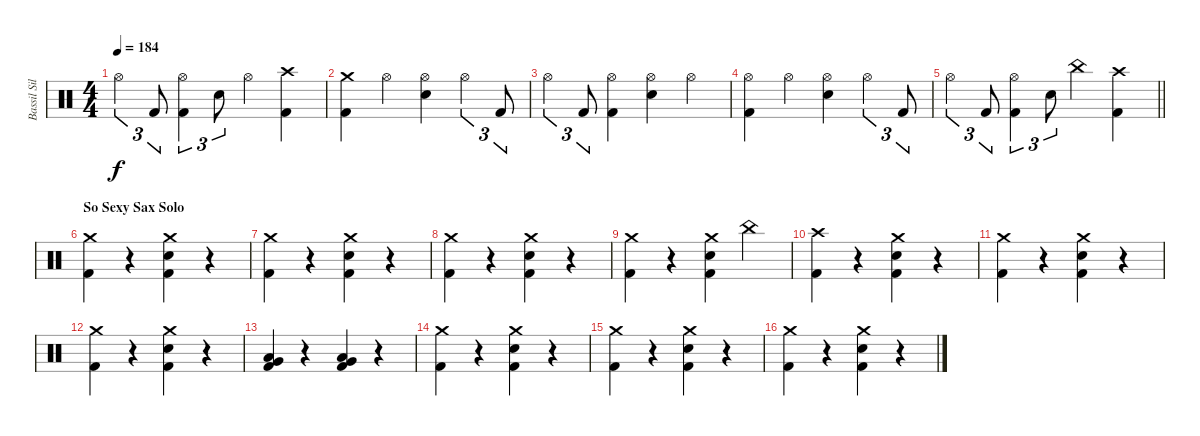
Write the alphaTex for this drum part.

\track ("Bassil Silver-Hajo" "Bassil Sil") {instrument percussion}
\staff {score}
\articulation defaults
\ts (4 4)
\tempo 184
\clef neutral
\ks c "Hi-Hat (open)".4{tu (3 2) dy f} "Kick (hit) 2".8{tu (3 2)}
("Hi-Hat (open)" "Kick (hit) 2").4{tu (3 2)} "Snare (hit) 2".8{tu (3 2)} "Hi-Hat (open)".4 ("Crash high (hit)" "Kick (hit) 2").4 |
("Crash medium (hit)" "Kick (hit) 2").4 "Hi-Hat (open)".4 ("Hi-Hat (open)" "Snare (hit) 2").4 "Hi-Hat (open)".4{tu (3 2)} "Kick (hit) 2".8{tu (3 2)} |
"Hi-Hat (open)".4{tu (3 2)} "Kick (hit) 2".8{tu (3 2)} ("Hi-Hat (open)" "Kick (hit) 2").4 ("Hi-Hat (open)" "Snare (hit) 2").4 "Hi-Hat (open)".4 |
("Hi-Hat (open)" "Kick (hit) 2").4 "Hi-Hat (open)".4 ("Hi-Hat (open)" "Snare (hit) 2").4 "Hi-Hat (open)".4{tu (3 2)} "Kick (hit) 2".8{tu (3 2)} |
\barLineRight lightlight "Hi-Hat (open)".4{tu (3 2)} "Kick (hit) 2".8{tu (3 2)}
("Hi-Hat (open)" "Kick (hit) 2").4{tu (3 2)} "Snare (hit) 2".8{tu (3 2)} "China (hit)".4 ("Crash high (hit)" "Kick (hit) 2").4 |
\section ("" "So Sexy Sax Solo")
("Crash medium (hit)" "Kick (hit) 2").4 r.4 ("Crash medium (hit)" "Snare (hit) 2" "Kick (hit) 2").4 r.4 |
("Crash medium (hit)" "Kick (hit) 2").4 r.4 ("Crash medium (hit)" "Snare (hit) 2" "Kick (hit) 2").4 r.4 |
("Crash medium (hit)" "Kick (hit) 2").4 r.4 ("Crash medium (hit)" "Snare (hit) 2" "Kick (hit) 2").4 r.4 |
("Crash medium (hit)" "Kick (hit) 2").4 r.4 ("Crash medium (hit)" "Snare (hit) 2" "Kick (hit) 2").4 "China (hit)".4 |
("Crash high (hit)" "Kick (hit) 2").4 r.4 ("Crash medium (hit)" "Snare (hit) 2" "Kick (hit) 2").4 r.4 |
("Crash medium (hit)" "Kick (hit) 2").4 r.4 ("Crash medium (hit)" "Snare (hit) 2" "Kick (hit) 2").4 r.4 |
("Crash medium (hit)" "Kick (hit) 2").4 r.4 ("Crash medium (hit)" "Snare (hit) 2" "Kick (hit) 2").4 r.4 |
("Low Tom (hit)" "Very Low Tom (hit)" "Kick (hit) 2").4 r.4 ("Very Low Tom (hit)" "Low Floor Tom (hit)" "Kick (hit) 2").4 r.4 |
("Crash medium (hit)" "Kick (hit) 2").4 r.4 ("Crash medium (hit)" "Snare (hit) 2" "Kick (hit) 2").4 r.4 |
("Crash medium (hit)" "Kick (hit) 2").4 r.4 ("Crash medium (hit)" "Snare (hit) 2" "Kick (hit) 2").4 r.4 |
("Crash medium (hit)" "Kick (hit) 2").4 r.4 ("Crash medium (hit)" "Snare (hit) 2" "Kick (hit) 2").4 r.4
